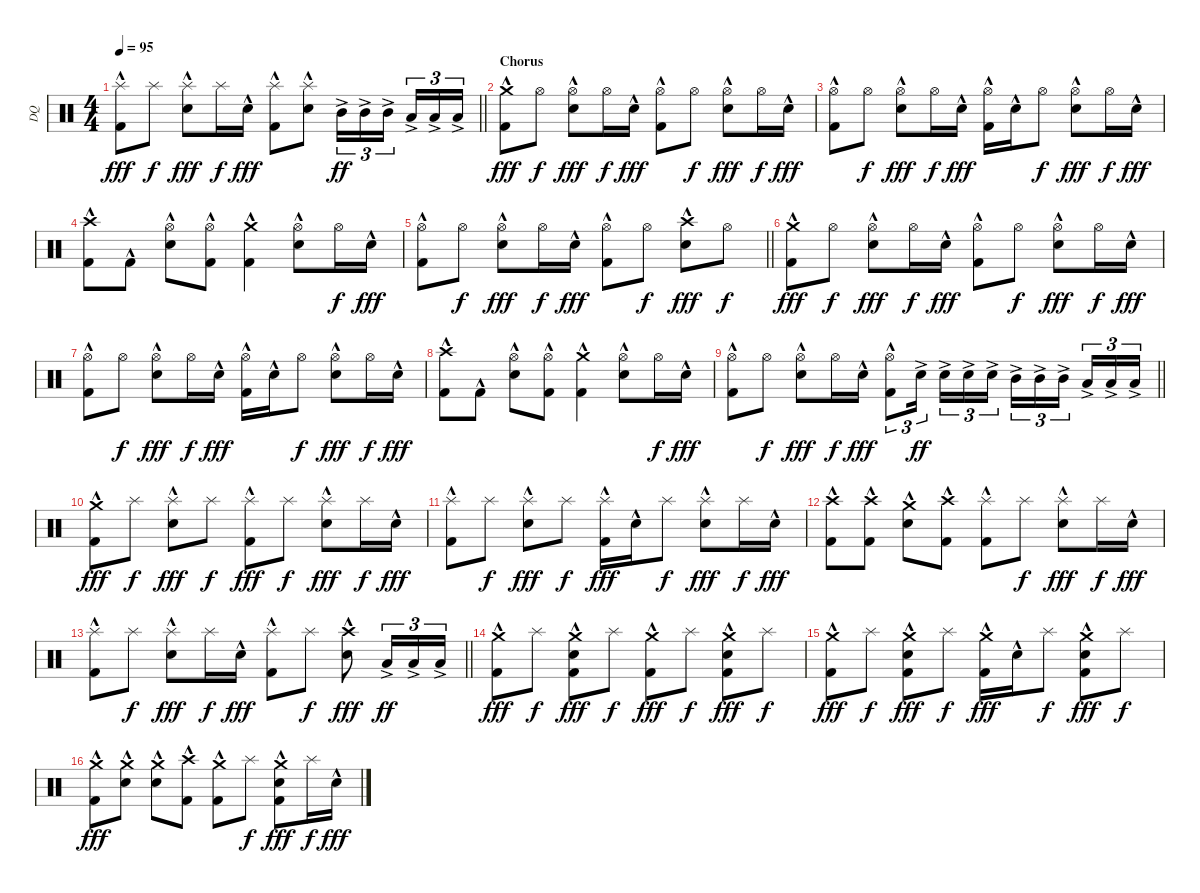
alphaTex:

\track ("DQ" "DQ") {instrument percussion}
\staff {score}
\articulation defaults
\ts (4 4)
\tempo 95
\clef neutral
\barLineRight lightlight
\ks c
("Kick (hit) 2"{hac} "Splash (hit)").8{dy fff} "Splash (hit)".8{dy f} ("Snare (hit) 2"{hac} "Splash (hit)").8{dy fff} "Splash (hit)".16{dy f} "Snare (hit) 2"{hac}.16{dy fff} ("Kick (hit) 2"{hac} "Splash (hit)").8 ("Snare (hit) 2"{hac} "Splash (hit)").8 "Mid Tom (hit)"{ac}.16{tu (3 2) dy ff} "Mid Tom (hit)"{ac}.16{tu (3 2)} "Mid Tom (hit)"{ac}.16{tu (3 2) beam splitsecondary} "Low Tom (hit)"{ac}.16{tu (3 2)} "Low Tom (hit)"{ac}.16{tu (3 2)} "Low Tom (hit)"{ac}.16{tu (3 2)} |
\section ("" "Chorus")
("Kick (hit) 2"{hac} "Crash medium (hit)").8{dy fff} "Hi-Hat (open)".8{dy f} ("Snare (hit) 2"{hac} "Hi-Hat (open)").8{dy fff} "Hi-Hat (open)".16{dy f} "Snare (hit) 2"{hac}.16{dy fff} ("Kick (hit) 2"{hac} "Hi-Hat (open)").8 "Hi-Hat (open)".8{dy f} ("Snare (hit) 2"{hac} "Hi-Hat (open)").8{dy fff} "Hi-Hat (open)".16{dy f} "Snare (hit) 2"{hac}.16{dy fff} |
("Kick (hit) 2"{hac} "Hi-Hat (open)").8 "Hi-Hat (open)".8{dy f} ("Snare (hit) 2"{hac} "Hi-Hat (open)").8{dy fff} "Hi-Hat (open)".16{dy f} "Snare (hit) 2"{hac}.16{dy fff} ("Kick (hit) 2"{hac} "Hi-Hat (open)").16 "Snare (hit) 2"{hac}.16 "Hi-Hat (open)".8{dy f} ("Snare (hit) 2"{hac} "Hi-Hat (open)").8{dy fff} "Hi-Hat (open)".16{dy f} "Snare (hit) 2"{hac}.16{dy fff} |
("Kick (hit) 2"{hac} "Crash high (hit)").8 "Kick (hit) 2"{hac}.8 ("Snare (hit) 2"{hac} "Hi-Hat (open)").8 ("Kick (hit) 2"{hac} "Hi-Hat (open)").8 ("Kick (hit) 2"{hac} "Crash medium (hit)").4 ("Snare (hit) 2"{hac} "Hi-Hat (open)").8 "Hi-Hat (open)".16{dy f} "Snare (hit) 2"{hac}.16{dy fff} |
\barLineRight lightlight
("Kick (hit) 2"{hac} "Hi-Hat (open)").8 "Hi-Hat (open)".8{dy f} ("Snare (hit) 2"{hac} "Hi-Hat (open)").8{dy fff} "Hi-Hat (open)".16{dy f} "Snare (hit) 2"{hac}.16{dy fff} ("Kick (hit) 2"{hac} "Hi-Hat (open)").8 "Hi-Hat (open)".8{dy f} ("Snare (hit) 2"{hac} "Crash high (hit)").8{dy fff} "Hi-Hat (open)".8{dy f} |
\section ("" "")
("Kick (hit) 2"{hac} "Crash medium (hit)").8{dy fff} "Hi-Hat (open)".8{dy f} ("Snare (hit) 2"{hac} "Hi-Hat (open)").8{dy fff} "Hi-Hat (open)".16{dy f} "Snare (hit) 2"{hac}.16{dy fff} ("Kick (hit) 2"{hac} "Hi-Hat (open)").8 "Hi-Hat (open)".8{dy f} ("Snare (hit) 2"{hac} "Hi-Hat (open)").8{dy fff} "Hi-Hat (open)".16{dy f} "Snare (hit) 2"{hac}.16{dy fff} |
("Kick (hit) 2"{hac} "Hi-Hat (open)").8 "Hi-Hat (open)".8{dy f} ("Snare (hit) 2"{hac} "Hi-Hat (open)").8{dy fff} "Hi-Hat (open)".16{dy f} "Snare (hit) 2"{hac}.16{dy fff} ("Kick (hit) 2"{hac} "Hi-Hat (open)").16 "Snare (hit) 2"{hac}.16 "Hi-Hat (open)".8{dy f} ("Snare (hit) 2"{hac} "Hi-Hat (open)").8{dy fff} "Hi-Hat (open)".16{dy f} "Snare (hit) 2"{hac}.16{dy fff} |
("Kick (hit) 2"{hac} "Crash high (hit)").8 "Kick (hit) 2"{hac}.8 ("Snare (hit) 2"{hac} "Hi-Hat (open)").8 ("Kick (hit) 2"{hac} "Hi-Hat (open)").8 ("Kick (hit) 2"{hac} "Crash medium (hit)").4 ("Snare (hit) 2"{hac} "Hi-Hat (open)").8 "Hi-Hat (open)".16{dy f} "Snare (hit) 2"{hac}.16{dy fff} |
\barLineRight lightlight
("Kick (hit) 2"{hac} "Hi-Hat (open)").8 "Hi-Hat (open)".8{dy f} ("Snare (hit) 2"{hac} "Hi-Hat (open)").8{dy fff} "Hi-Hat (open)".16{dy f} "Snare (hit) 2"{hac}.16{dy fff} ("Kick (hit) 2"{hac} "Hi-Hat (open)").8{tu (3 2)} "Snare (hit) 2"{ac}.16{tu (3 2) dy ff beam splitsecondary} "Snare (hit) 2"{ac}.16{tu (3 2)} "Snare (hit) 2"{ac}.16{tu (3 2)} "Snare (hit) 2"{ac}.16{tu (3 2)} "Mid Tom (hit)"{ac}.16{tu (3 2)} "Mid Tom (hit)"{ac}.16{tu (3 2)} "Mid Tom (hit)"{ac}.16{tu (3 2) beam splitsecondary} "Low Tom (hit)"{ac}.16{tu (3 2)} "Low Tom (hit)"{ac}.16{tu (3 2)} "Low Tom (hit)"{ac}.16{tu (3 2)} |
\section ("" "")
("Kick (hit) 2"{hac} "Crash medium (hit)").8{dy fff} "Splash (hit)".8{dy f} ("Snare (hit) 2"{hac} "Splash (hit)").8{dy fff} "Splash (hit)".8{dy f} ("Kick (hit) 2"{hac} "Splash (hit)").8{dy fff} "Splash (hit)".8{dy f} ("Snare (hit) 2"{hac} "Splash (hit)").8{dy fff} "Splash (hit)".16{dy f} "Snare (hit) 2"{hac}.16{dy fff} |
("Kick (hit) 2"{hac} "Splash (hit)").8 "Splash (hit)".8{dy f} ("Snare (hit) 2"{hac} "Splash (hit)").8{dy fff} "Splash (hit)".8{dy f} ("Kick (hit) 2"{hac} "Splash (hit)").16{dy fff} "Snare (hit) 2"{hac}.16 "Splash (hit)".8{dy f} ("Snare (hit) 2"{hac} "Splash (hit)").8{dy fff} "Splash (hit)".16{dy f} "Snare (hit) 2"{hac}.16{dy fff} |
("Kick (hit) 2"{hac} "Crash high (hit)").8 ("Kick (hit) 2"{hac} "Crash high (hit)").8 ("Snare (hit) 2"{hac} "Crash medium (hit)").8 ("Kick (hit) 2"{hac} "Crash high (hit)").8 ("Kick (hit) 2"{hac} "Splash (hit)").8 "Splash (hit)".8{dy f} ("Snare (hit) 2"{hac} "Splash (hit)").8{dy fff} "Splash (hit)".16{dy f} "Snare (hit) 2"{hac}.16{dy fff} |
\barLineRight lightlight
("Kick (hit) 2"{hac} "Splash (hit)").8 "Splash (hit)".8{dy f} ("Snare (hit) 2"{hac} "Splash (hit)").8{dy fff} "Splash (hit)".16{dy f} "Snare (hit) 2"{hac}.16{dy fff} ("Kick (hit) 2"{hac} "Splash (hit)").8 "Splash (hit)".8{dy f} ("Snare (hit) 2"{hac} "Crash high (hit)").8{dy fff} "Low Tom (hit)"{ac}.16{tu (3 2) dy ff} "Low Tom (hit)"{ac}.16{tu (3 2)} "Low Tom (hit)"{ac}.16{tu (3 2)} |
\section ("" "")
("Kick (hit) 2"{hac} "Crash medium (hit)").8{dy fff} "Splash (hit)".8{dy f} ("Kick (hit) 2"{hac} "Snare (hit) 2"{hac} "Crash medium (hit)").8{dy fff} "Splash (hit)".8{dy f} ("Kick (hit) 2"{hac} "Crash medium (hit)").8{dy fff} "Splash (hit)".8{dy f} ("Kick (hit) 2"{hac} "Snare (hit) 2"{hac} "Crash medium (hit)").8{dy fff} "Splash (hit)".8{dy f} |
("Kick (hit) 2"{hac} "Crash medium (hit)").8{dy fff} "Splash (hit)".8{dy f} ("Kick (hit) 2"{hac} "Snare (hit) 2"{hac} "Crash medium (hit)").8{dy fff} "Splash (hit)".8{dy f} ("Kick (hit) 2"{hac} "Crash medium (hit)").16{dy fff} "Snare (hit) 2"{hac}.16 "Splash (hit)".8{dy f} ("Kick (hit) 2"{hac} "Snare (hit) 2"{hac} "Crash medium (hit)").8{dy fff} "Splash (hit)".8{dy f} |
("Kick (hit) 2"{hac} "Crash medium (hit)").8{dy fff} ("Snare (hit) 2"{hac} "Crash medium (hit)").8 ("Snare (hit) 2"{hac} "Crash medium (hit)").8 ("Kick (hit) 2"{hac} "Crash high (hit)").8 ("Kick (hit) 2"{hac} "Crash medium (hit)").8 "Splash (hit)".8{dy f} ("Kick (hit) 2"{hac} "Snare (hit) 2"{hac} "Crash medium (hit)").8{dy fff} "Splash (hit)".16{dy f} "Snare (hit) 2"{hac}.16{dy fff}
